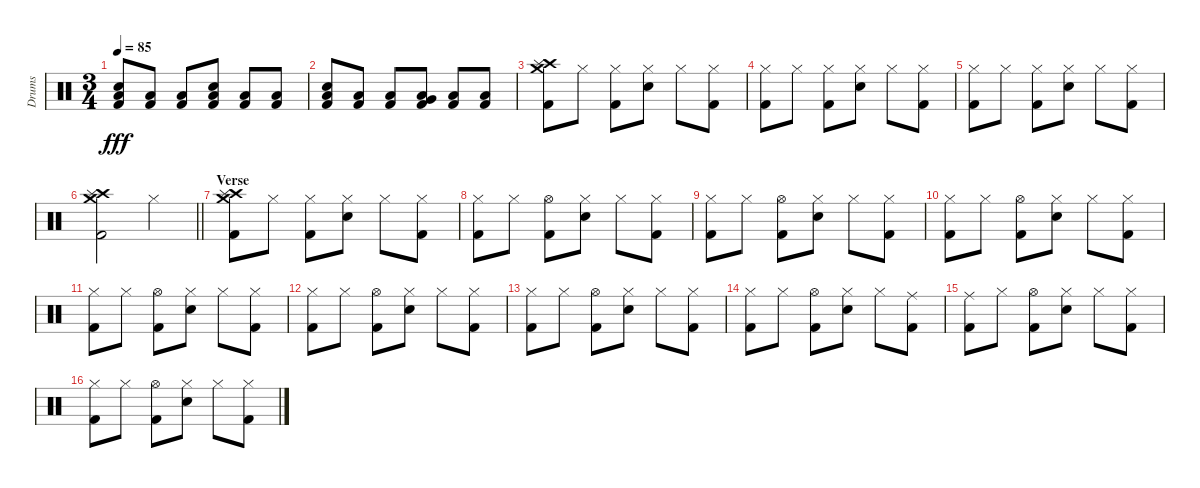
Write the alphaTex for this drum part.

\track ("Drums" "Drums") {instrument percussion}
\staff {score}
\articulation defaults
\ts (3 4)
\tempo 85
\clef neutral
\ks c
("Low Floor Tom (hit)" "Electric Snare (hit)" "Kick (hit) 2").8{dy fff} ("Low Floor Tom (hit)" "Kick (hit) 2").8 ("Low Floor Tom (hit)" "Kick (hit) 2").8 ("Low Floor Tom (hit)" "Electric Snare (hit)" "Kick (hit) 2").8 ("Low Floor Tom (hit)" "Kick (hit) 2").8 ("Low Floor Tom (hit)" "Kick (hit) 2").8 |
("Low Floor Tom (hit)" "Electric Snare (hit)" "Kick (hit) 2").8 ("Low Floor Tom (hit)" "Kick (hit) 2").8 ("Low Floor Tom (hit)" "Kick (hit) 2").8 ("Very Low Tom (hit)" "Low Floor Tom (hit)" "Kick (hit) 2").8 ("Low Floor Tom (hit)" "Kick (hit) 2").8 ("Low Floor Tom (hit)" "Kick (hit) 2").8 |
("Crash high (hit)" "Crash medium (hit)" "Splash (hit)" "Kick (hit) 2").8 "Hi-Hat (closed)".8 ("Hi-Hat (closed)" "Kick (hit) 2").8 ("Hi-Hat (closed)" "Electric Snare (hit)").8 "Hi-Hat (closed)".8 ("Hi-Hat (closed)" "Kick (hit) 2").8 |
("Hi-Hat (closed)" "Kick (hit) 2").8 "Hi-Hat (closed)".8 ("Hi-Hat (closed)" "Kick (hit) 2").8 ("Hi-Hat (closed)" "Electric Snare (hit)").8 "Hi-Hat (closed)".8 ("Hi-Hat (closed)" "Kick (hit) 2").8 |
("Hi-Hat (closed)" "Kick (hit) 2").8 "Hi-Hat (closed)".8 ("Hi-Hat (closed)" "Kick (hit) 2").8 ("Hi-Hat (closed)" "Electric Snare (hit)").8 "Hi-Hat (closed)".8 ("Hi-Hat (closed)" "Kick (hit) 2").8 |
\barLineRight lightlight
("Crash high (hit)" "Crash medium (hit)" "Splash (hit)" "Kick (hit) 2").2 "Hi-Hat (closed)".4 |
\section ("" "Verse")
("Crash high (hit)" "Crash medium (hit)" "Splash (hit)" "Kick (hit) 2").8 "Hi-Hat (closed)".8 ("Hi-Hat (closed)" "Kick (hit) 2").8 ("Hi-Hat (closed)" "Electric Snare (hit)").8 "Hi-Hat (closed)".8 ("Hi-Hat (closed)" "Kick (hit) 2").8 |
("Hi-Hat (closed)" "Kick (hit) 2").8 "Hi-Hat (closed)".8 ("Hi-Hat (open)" "Kick (hit) 2").8 ("Hi-Hat (closed)" "Electric Snare (hit)").8 "Hi-Hat (closed)".8 ("Hi-Hat (closed)" "Kick (hit) 2").8 |
("Hi-Hat (closed)" "Kick (hit) 2").8 "Hi-Hat (closed)".8 ("Hi-Hat (open)" "Kick (hit) 2").8 ("Hi-Hat (closed)" "Electric Snare (hit)").8 "Hi-Hat (closed)".8 ("Hi-Hat (closed)" "Kick (hit) 2").8 |
("Hi-Hat (closed)" "Kick (hit) 2").8 "Hi-Hat (closed)".8 ("Hi-Hat (open)" "Kick (hit) 2").8 ("Hi-Hat (closed)" "Electric Snare (hit)").8 "Hi-Hat (closed)".8 ("Hi-Hat (closed)" "Kick (hit) 2").8 |
("Hi-Hat (closed)" "Kick (hit) 2").8 "Hi-Hat (closed)".8 ("Hi-Hat (open)" "Kick (hit) 2").8 ("Hi-Hat (closed)" "Electric Snare (hit)").8 "Hi-Hat (closed)".8 ("Hi-Hat (closed)" "Kick (hit) 2").8 |
("Hi-Hat (closed)" "Kick (hit) 2").8 "Hi-Hat (closed)".8 ("Hi-Hat (open)" "Kick (hit) 2").8 ("Hi-Hat (closed)" "Electric Snare (hit)").8 "Hi-Hat (closed)".8 ("Hi-Hat (closed)" "Kick (hit) 2").8 |
("Hi-Hat (closed)" "Kick (hit) 2").8 "Hi-Hat (closed)".8 ("Hi-Hat (open)" "Kick (hit) 2").8 ("Hi-Hat (closed)" "Electric Snare (hit)").8 "Hi-Hat (closed)".8 ("Hi-Hat (closed)" "Kick (hit) 2").8 |
("Hi-Hat (closed)" "Kick (hit) 2").8 "Hi-Hat (closed)".8 ("Hi-Hat (open)" "Kick (hit) 2").8 ("Hi-Hat (closed)" "Electric Snare (hit)").8 "Hi-Hat (closed)".8 ("Ride (middle)" "Kick (hit) 2").8 |
("Ride (middle)" "Kick (hit) 2").8 "Hi-Hat (closed)".8 ("Hi-Hat (open)" "Kick (hit) 2").8 ("Hi-Hat (closed)" "Electric Snare (hit)").8 "Hi-Hat (closed)".8 ("Hi-Hat (closed)" "Kick (hit) 2").8 |
("Hi-Hat (closed)" "Kick (hit) 2").8 "Hi-Hat (closed)".8 ("Hi-Hat (open)" "Kick (hit) 2").8 ("Hi-Hat (closed)" "Electric Snare (hit)").8 "Hi-Hat (closed)".8 ("Hi-Hat (closed)" "Kick (hit) 2").8
